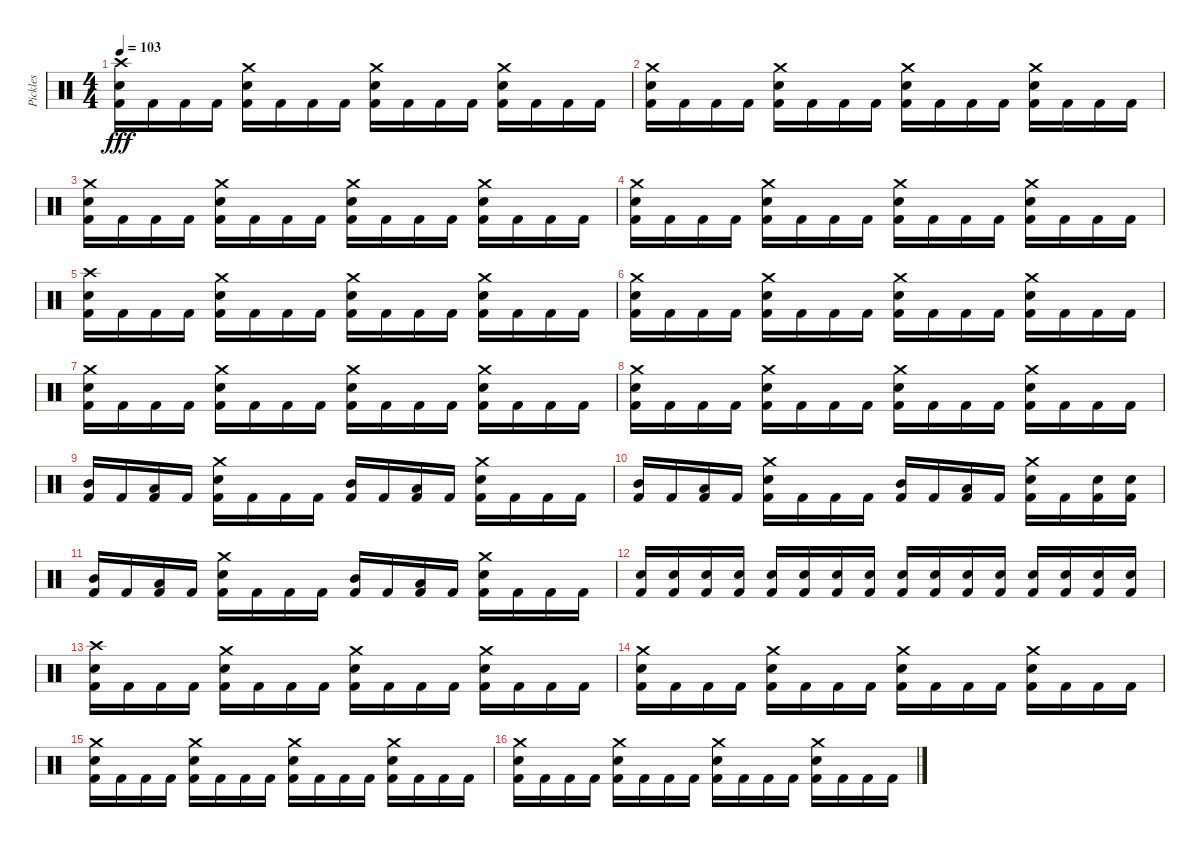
\track ("Pickles" "Pickles") {instrument percussion}
\staff {score}
\articulation defaults
\ts (4 4)
\tempo 103
\clef neutral
\ks c
("Crash high (hit)" "Electric Snare (hit)" "Kick (hit) 2").16{dy fff} "Kick (hit) 2".16 "Kick (hit) 2".16 "Kick (hit) 2".16 ("Crash medium (hit)" "Electric Snare (hit)" "Kick (hit) 2").16 "Kick (hit) 2".16 "Kick (hit) 2".16 "Kick (hit) 2".16 ("Crash medium (hit)" "Electric Snare (hit)" "Kick (hit) 2").16 "Kick (hit) 2".16 "Kick (hit) 2".16 "Kick (hit) 2".16 ("Crash medium (hit)" "Electric Snare (hit)" "Kick (hit) 2").16 "Kick (hit) 2".16 "Kick (hit) 2".16 "Kick (hit) 2".16 |
("Crash medium (hit)" "Electric Snare (hit)" "Kick (hit) 2").16 "Kick (hit) 2".16 "Kick (hit) 2".16 "Kick (hit) 2".16 ("Crash medium (hit)" "Electric Snare (hit)" "Kick (hit) 2").16 "Kick (hit) 2".16 "Kick (hit) 2".16 "Kick (hit) 2".16 ("Crash medium (hit)" "Electric Snare (hit)" "Kick (hit) 2").16 "Kick (hit) 2".16 "Kick (hit) 2".16 "Kick (hit) 2".16 ("Crash medium (hit)" "Electric Snare (hit)" "Kick (hit) 2").16 "Kick (hit) 2".16 "Kick (hit) 2".16 "Kick (hit) 2".16 |
("Crash medium (hit)" "Electric Snare (hit)" "Kick (hit) 2").16 "Kick (hit) 2".16 "Kick (hit) 2".16 "Kick (hit) 2".16 ("Crash medium (hit)" "Electric Snare (hit)" "Kick (hit) 2").16 "Kick (hit) 2".16 "Kick (hit) 2".16 "Kick (hit) 2".16 ("Crash medium (hit)" "Electric Snare (hit)" "Kick (hit) 2").16 "Kick (hit) 2".16 "Kick (hit) 2".16 "Kick (hit) 2".16 ("Crash medium (hit)" "Electric Snare (hit)" "Kick (hit) 2").16 "Kick (hit) 2".16 "Kick (hit) 2".16 "Kick (hit) 2".16 |
("Crash medium (hit)" "Electric Snare (hit)" "Kick (hit) 2").16 "Kick (hit) 2".16 "Kick (hit) 2".16 "Kick (hit) 2".16 ("Crash medium (hit)" "Electric Snare (hit)" "Kick (hit) 2").16 "Kick (hit) 2".16 "Kick (hit) 2".16 "Kick (hit) 2".16 ("Crash medium (hit)" "Electric Snare (hit)" "Kick (hit) 2").16 "Kick (hit) 2".16 "Kick (hit) 2".16 "Kick (hit) 2".16 ("Crash medium (hit)" "Electric Snare (hit)" "Kick (hit) 2").16 "Kick (hit) 2".16 "Kick (hit) 2".16 "Kick (hit) 2".16 |
("Crash high (hit)" "Electric Snare (hit)" "Kick (hit) 2").16 "Kick (hit) 2".16 "Kick (hit) 2".16 "Kick (hit) 2".16 ("Crash medium (hit)" "Electric Snare (hit)" "Kick (hit) 2").16 "Kick (hit) 2".16 "Kick (hit) 2".16 "Kick (hit) 2".16 ("Crash medium (hit)" "Electric Snare (hit)" "Kick (hit) 2").16 "Kick (hit) 2".16 "Kick (hit) 2".16 "Kick (hit) 2".16 ("Crash medium (hit)" "Electric Snare (hit)" "Kick (hit) 2").16 "Kick (hit) 2".16 "Kick (hit) 2".16 "Kick (hit) 2".16 |
("Crash medium (hit)" "Electric Snare (hit)" "Kick (hit) 2").16 "Kick (hit) 2".16 "Kick (hit) 2".16 "Kick (hit) 2".16 ("Crash medium (hit)" "Electric Snare (hit)" "Kick (hit) 2").16 "Kick (hit) 2".16 "Kick (hit) 2".16 "Kick (hit) 2".16 ("Crash medium (hit)" "Electric Snare (hit)" "Kick (hit) 2").16 "Kick (hit) 2".16 "Kick (hit) 2".16 "Kick (hit) 2".16 ("Crash medium (hit)" "Electric Snare (hit)" "Kick (hit) 2").16 "Kick (hit) 2".16 "Kick (hit) 2".16 "Kick (hit) 2".16 |
("Crash medium (hit)" "Electric Snare (hit)" "Kick (hit) 2").16 "Kick (hit) 2".16 "Kick (hit) 2".16 "Kick (hit) 2".16 ("Crash medium (hit)" "Electric Snare (hit)" "Kick (hit) 2").16 "Kick (hit) 2".16 "Kick (hit) 2".16 "Kick (hit) 2".16 ("Crash medium (hit)" "Electric Snare (hit)" "Kick (hit) 2").16 "Kick (hit) 2".16 "Kick (hit) 2".16 "Kick (hit) 2".16 ("Crash medium (hit)" "Electric Snare (hit)" "Kick (hit) 2").16 "Kick (hit) 2".16 "Kick (hit) 2".16 "Kick (hit) 2".16 |
("Crash medium (hit)" "Electric Snare (hit)" "Kick (hit) 2").16 "Kick (hit) 2".16 "Kick (hit) 2".16 "Kick (hit) 2".16 ("Crash medium (hit)" "Electric Snare (hit)" "Kick (hit) 2").16 "Kick (hit) 2".16 "Kick (hit) 2".16 "Kick (hit) 2".16 ("Crash medium (hit)" "Electric Snare (hit)" "Kick (hit) 2").16 "Kick (hit) 2".16 "Kick (hit) 2".16 "Kick (hit) 2".16 ("Crash medium (hit)" "Electric Snare (hit)" "Kick (hit) 2").16 "Kick (hit) 2".16 "Kick (hit) 2".16 "Kick (hit) 2".16 |
("Mid Tom (hit)" "Kick (hit) 2").16 "Kick (hit) 2".16 ("Low Tom (hit)" "Kick (hit) 2").16 "Kick (hit) 2".16 ("Crash medium (hit)" "Electric Snare (hit)" "Kick (hit) 2").16 "Kick (hit) 2".16 "Kick (hit) 2".16 "Kick (hit) 2".16 ("Mid Tom (hit)" "Kick (hit) 2").16 "Kick (hit) 2".16 ("Low Tom (hit)" "Kick (hit) 2").16 "Kick (hit) 2".16 ("Crash medium (hit)" "Electric Snare (hit)" "Kick (hit) 2").16 "Kick (hit) 2".16 "Kick (hit) 2".16 "Kick (hit) 2".16 |
("Mid Tom (hit)" "Kick (hit) 2").16 "Kick (hit) 2".16 ("Low Tom (hit)" "Kick (hit) 2").16 "Kick (hit) 2".16 ("Crash medium (hit)" "Electric Snare (hit)" "Kick (hit) 2").16 "Kick (hit) 2".16 "Kick (hit) 2".16 "Kick (hit) 2".16 ("Mid Tom (hit)" "Kick (hit) 2").16 "Kick (hit) 2".16 ("Low Tom (hit)" "Kick (hit) 2").16 "Kick (hit) 2".16 ("Crash medium (hit)" "Electric Snare (hit)" "Kick (hit) 2").16 "Kick (hit) 2".16 ("Electric Snare (hit)" "Kick (hit) 2").16 ("Electric Snare (hit)" "Kick (hit) 2").16 |
("Mid Tom (hit)" "Kick (hit) 2").16 "Kick (hit) 2".16 ("Low Tom (hit)" "Kick (hit) 2").16 "Kick (hit) 2".16 ("Crash medium (hit)" "Electric Snare (hit)" "Kick (hit) 2").16 "Kick (hit) 2".16 "Kick (hit) 2".16 "Kick (hit) 2".16 ("Mid Tom (hit)" "Kick (hit) 2").16 "Kick (hit) 2".16 ("Low Tom (hit)" "Kick (hit) 2").16 "Kick (hit) 2".16 ("Crash medium (hit)" "Electric Snare (hit)" "Kick (hit) 2").16 "Kick (hit) 2".16 "Kick (hit) 2".16 "Kick (hit) 2".16 |
("Electric Snare (hit)" "Kick (hit) 2").16 ("Electric Snare (hit)" "Kick (hit) 2").16 ("Electric Snare (hit)" "Kick (hit) 2").16 ("Electric Snare (hit)" "Kick (hit) 2").16 ("Electric Snare (hit)" "Kick (hit) 2").16 ("Electric Snare (hit)" "Kick (hit) 2").16 ("Electric Snare (hit)" "Kick (hit) 2").16 ("Electric Snare (hit)" "Kick (hit) 2").16 ("Electric Snare (hit)" "Kick (hit) 2").16 ("Electric Snare (hit)" "Kick (hit) 2").16 ("Electric Snare (hit)" "Kick (hit) 2").16 ("Electric Snare (hit)" "Kick (hit) 2").16 ("Electric Snare (hit)" "Kick (hit) 2").16 ("Electric Snare (hit)" "Kick (hit) 2").16 ("Electric Snare (hit)" "Kick (hit) 2").16 ("Electric Snare (hit)" "Kick (hit) 2").16 |
("Crash high (hit)" "Electric Snare (hit)" "Kick (hit) 2").16 "Kick (hit) 2".16 "Kick (hit) 2".16 "Kick (hit) 2".16 ("Crash medium (hit)" "Electric Snare (hit)" "Kick (hit) 2").16 "Kick (hit) 2".16 "Kick (hit) 2".16 "Kick (hit) 2".16 ("Crash medium (hit)" "Electric Snare (hit)" "Kick (hit) 2").16 "Kick (hit) 2".16 "Kick (hit) 2".16 "Kick (hit) 2".16 ("Crash medium (hit)" "Electric Snare (hit)" "Kick (hit) 2").16 "Kick (hit) 2".16 "Kick (hit) 2".16 "Kick (hit) 2".16 |
("Crash medium (hit)" "Electric Snare (hit)" "Kick (hit) 2").16 "Kick (hit) 2".16 "Kick (hit) 2".16 "Kick (hit) 2".16 ("Crash medium (hit)" "Electric Snare (hit)" "Kick (hit) 2").16 "Kick (hit) 2".16 "Kick (hit) 2".16 "Kick (hit) 2".16 ("Crash medium (hit)" "Electric Snare (hit)" "Kick (hit) 2").16 "Kick (hit) 2".16 "Kick (hit) 2".16 "Kick (hit) 2".16 ("Crash medium (hit)" "Electric Snare (hit)" "Kick (hit) 2").16 "Kick (hit) 2".16 "Kick (hit) 2".16 "Kick (hit) 2".16 |
("Crash medium (hit)" "Electric Snare (hit)" "Kick (hit) 2").16 "Kick (hit) 2".16 "Kick (hit) 2".16 "Kick (hit) 2".16 ("Crash medium (hit)" "Electric Snare (hit)" "Kick (hit) 2").16 "Kick (hit) 2".16 "Kick (hit) 2".16 "Kick (hit) 2".16 ("Crash medium (hit)" "Electric Snare (hit)" "Kick (hit) 2").16 "Kick (hit) 2".16 "Kick (hit) 2".16 "Kick (hit) 2".16 ("Crash medium (hit)" "Electric Snare (hit)" "Kick (hit) 2").16 "Kick (hit) 2".16 "Kick (hit) 2".16 "Kick (hit) 2".16 |
("Crash medium (hit)" "Electric Snare (hit)" "Kick (hit) 2").16 "Kick (hit) 2".16 "Kick (hit) 2".16 "Kick (hit) 2".16 ("Crash medium (hit)" "Electric Snare (hit)" "Kick (hit) 2").16 "Kick (hit) 2".16 "Kick (hit) 2".16 "Kick (hit) 2".16 ("Crash medium (hit)" "Electric Snare (hit)" "Kick (hit) 2").16 "Kick (hit) 2".16 "Kick (hit) 2".16 "Kick (hit) 2".16 ("Crash medium (hit)" "Electric Snare (hit)" "Kick (hit) 2").16 "Kick (hit) 2".16 "Kick (hit) 2".16 "Kick (hit) 2".16
